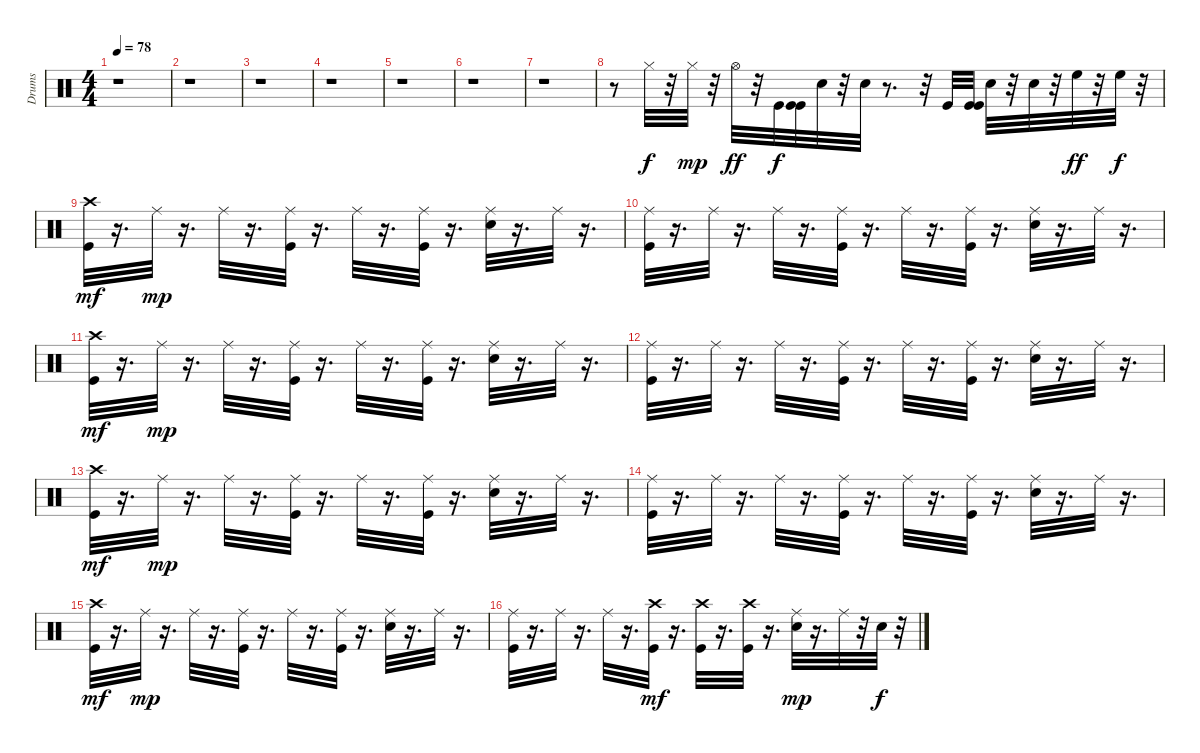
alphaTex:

\track ("Drums" "Drums") {instrument percussion}
\staff {score}
\articulation defaults
\ts (4 4)
\tempo 78
\clef neutral
\ks c
r.1{dy f} |
r.1 |
r.1 |
r.1 |
r.1 |
r.1 |
r.1 |
r.8 "Hi-Hat (closed)".32 r.32 "Hi-Hat (closed)".32{dy mp} r.32 "Hi-Hat (open)".32{dy ff} r.32 "Kick (hit)".32{dy f} ("Kick (hit)" "Kick (hit)").32 "Snare (hit) 2".32 r.32 "Snare (hit) 2".32 r.8{d} r.32 "Kick (hit)".32 ("Kick (hit)" "Kick (hit)").32 "Snare (hit) 2".32 r.32 "Snare (hit) 2".32 r.32 "High Floor Tom (hit)".32{dy ff} r.32 "High Floor Tom (hit)".32{dy f} r.32 |
("Kick (hit)" "Crash high (hit)").32{dy mf} r.16{d} "Ride (middle)".32{dy mp} r.16{d} "Ride (middle)".32 r.16{d} ("Kick (hit)" "Ride (middle)").32 r.16{d} "Ride (middle)".32 r.16{d} ("Kick (hit)" "Ride (middle)").32 r.16{d} ("Snare (hit) 2" "Ride (middle)").32 r.16{d} "Ride (middle)".32 r.16{d} |
("Kick (hit)" "Ride (middle)").32 r.16{d} "Ride (middle)".32 r.16{d} "Ride (middle)".32 r.16{d} ("Kick (hit)" "Ride (middle)").32 r.16{d} "Ride (middle)".32 r.16{d} ("Kick (hit)" "Ride (middle)").32 r.16{d} ("Snare (hit) 2" "Ride (middle)").32 r.16{d} "Ride (middle)".32 r.16{d} |
("Kick (hit)" "Crash high (hit)").32{dy mf} r.16{d} "Ride (middle)".32{dy mp} r.16{d} "Ride (middle)".32 r.16{d} ("Kick (hit)" "Ride (middle)").32 r.16{d} "Ride (middle)".32 r.16{d} ("Kick (hit)" "Ride (middle)").32 r.16{d} ("Snare (hit) 2" "Ride (middle)").32 r.16{d} "Ride (middle)".32 r.16{d} |
("Kick (hit)" "Ride (middle)").32 r.16{d} "Ride (middle)".32 r.16{d} "Ride (middle)".32 r.16{d} ("Kick (hit)" "Ride (middle)").32 r.16{d} "Ride (middle)".32 r.16{d} ("Kick (hit)" "Ride (middle)").32 r.16{d} ("Snare (hit) 2" "Ride (middle)").32 r.16{d} "Ride (middle)".32 r.16{d} |
("Kick (hit)" "Crash high (hit)").32{dy mf} r.16{d} "Ride (middle)".32{dy mp} r.16{d} "Ride (middle)".32 r.16{d} ("Kick (hit)" "Ride (middle)").32 r.16{d} "Ride (middle)".32 r.16{d} ("Kick (hit)" "Ride (middle)").32 r.16{d} ("Snare (hit) 2" "Ride (middle)").32 r.16{d} "Ride (middle)".32 r.16{d} |
("Kick (hit)" "Ride (middle)").32 r.16{d} "Ride (middle)".32 r.16{d} "Ride (middle)".32 r.16{d} ("Kick (hit)" "Ride (middle)").32 r.16{d} "Ride (middle)".32 r.16{d} ("Kick (hit)" "Ride (middle)").32 r.16{d} ("Snare (hit) 2" "Ride (middle)").32 r.16{d} "Ride (middle)".32 r.16{d} |
("Kick (hit)" "Crash high (hit)").32{dy mf} r.16{d} "Ride (middle)".32{dy mp} r.16{d} "Ride (middle)".32 r.16{d} ("Kick (hit)" "Ride (middle)").32 r.16{d} "Ride (middle)".32 r.16{d} ("Kick (hit)" "Ride (middle)").32 r.16{d} ("Snare (hit) 2" "Ride (middle)").32 r.16{d} "Ride (middle)".32 r.16{d} |
("Kick (hit)" "Ride (middle)").32 r.16{d} "Ride (middle)".32 r.16{d} "Ride (middle)".32 r.16{d} ("Kick (hit)" "Crash high (hit)").32{dy mf} r.16{d} ("Kick (hit)" "Crash high (hit)").32 r.16{d} ("Kick (hit)" "Crash high (hit)").32 r.16{d} ("Snare (hit) 2" "Ride (middle)").32{dy mp} r.16{d} "Ride (middle)".32 r.32 "Snare (hit) 2".32{dy f} r.32
